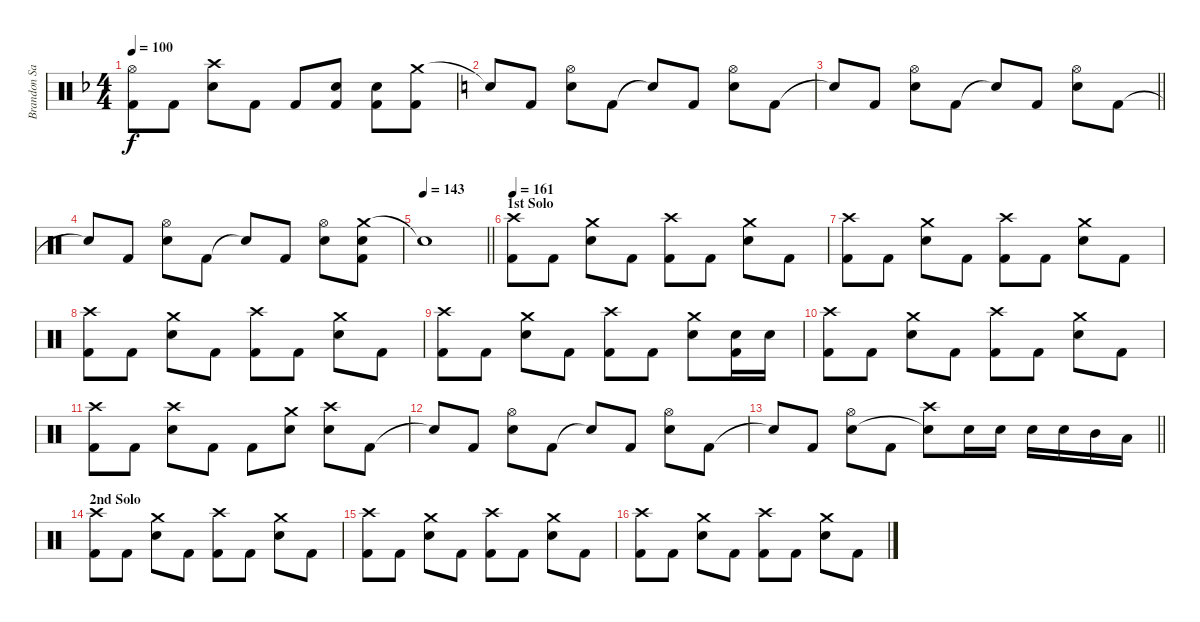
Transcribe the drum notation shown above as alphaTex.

\track ("Brandon Saller" "Brandon Sa") {instrument percussion}
\staff {score}
\articulation defaults
\ts (4 4)
\tempo 100
\clef neutral
\ks f
("Hi-Hat (open)" "Kick (hit) 2").8{dy f} "Kick (hit) 2".8 ("Crash high (hit)" "Electric Snare (hit)").8 "Kick (hit) 2".8 "Kick (hit) 2".8 ("Snare (hit) 2" "Kick (hit) 2").8 ("Snare (hit) 2" "Kick (hit) 2").8 ("Crash medium (hit)" "Kick (hit) 2").8 |
\ks c "Snare (hit)"{t}.8 "Kick (hit) 2".8
("Hi-Hat (open)" "Electric Snare (hit)").8 "Kick (hit) 2".8 "Snare (hit)"{t}.8 "Kick (hit) 2".8 ("Hi-Hat (open)" "Electric Snare (hit)").8 "Kick (hit) 2".8 |
\barLineRight lightlight "Snare (hit)"{t}.8 "Kick (hit) 2".8
("Hi-Hat (open)" "Electric Snare (hit)").8 "Kick (hit) 2".8 "Snare (hit)"{t}.8 "Kick (hit) 2".8 ("Hi-Hat (open)" "Electric Snare (hit)").8 "Kick (hit) 2".8 |
"Snare (hit)"{t}.8 "Kick (hit) 2".8 ("Hi-Hat (open)" "Electric Snare (hit)").8 "Kick (hit) 2".8 "Snare (hit)"{t}.8 "Kick (hit) 2".8 ("Hi-Hat (open)" "Electric Snare (hit)").8 ("Crash medium (hit)" "Snare (hit) 2" "Kick (hit) 2").8 |
\tempo 143
\barLineRight lightlight "Snare (hit)"{t}.1
|
\section ("" "1st Solo")
\tempo 161
("Crash high (hit)" "Kick (hit) 2").8 "Kick (hit) 2".8 ("Crash medium (hit)" "Electric Snare (hit)").8 "Kick (hit) 2".8 ("Crash high (hit)" "Kick (hit) 2").8 "Kick (hit) 2".8 ("Crash medium (hit)" "Electric Snare (hit)").8 "Kick (hit) 2".8 |
("Crash high (hit)" "Kick (hit) 2").8 "Kick (hit) 2".8 ("Crash medium (hit)" "Electric Snare (hit)").8 "Kick (hit) 2".8 ("Crash high (hit)" "Kick (hit) 2").8 "Kick (hit) 2".8 ("Crash medium (hit)" "Electric Snare (hit)").8 "Kick (hit) 2".8 |
("Crash high (hit)" "Kick (hit) 2").8 "Kick (hit) 2".8 ("Crash medium (hit)" "Electric Snare (hit)").8 "Kick (hit) 2".8 ("Crash high (hit)" "Kick (hit) 2").8 "Kick (hit) 2".8 ("Crash medium (hit)" "Electric Snare (hit)").8 "Kick (hit) 2".8 |
("Crash high (hit)" "Kick (hit) 2").8 "Kick (hit) 2".8 ("Crash medium (hit)" "Electric Snare (hit)").8 "Kick (hit) 2".8 ("Crash high (hit)" "Kick (hit) 2").8 "Kick (hit) 2".8 ("Crash medium (hit)" "Electric Snare (hit)").8 ("Electric Snare (hit)" "Kick (hit) 2").16 "Electric Snare (hit)".16 |
("Crash high (hit)" "Kick (hit) 2").8 "Kick (hit) 2".8 ("Crash medium (hit)" "Electric Snare (hit)").8 "Kick (hit) 2".8 ("Crash high (hit)" "Kick (hit) 2").8 "Kick (hit) 2".8 ("Crash medium (hit)" "Electric Snare (hit)").8 "Kick (hit) 2".8 |
("Crash high (hit)" "Kick (hit) 2").8 "Kick (hit) 2".8 ("Crash high (hit)" "Electric Snare (hit)").8 "Kick (hit) 2".8 "Kick (hit) 2".8 ("Crash medium (hit)" "Snare (hit) 2").8 ("Crash high (hit)" "Snare (hit) 2").8 "Kick (hit) 2".8 |
"Snare (hit)"{t}.8 "Kick (hit) 2".8 ("Hi-Hat (open)" "Electric Snare (hit)").8 "Kick (hit) 2".8 "Snare (hit)"{t}.8 "Kick (hit) 2".8 ("Hi-Hat (open)" "Electric Snare (hit)").8 "Kick (hit) 2".8 |
\barLineRight lightlight "Snare (hit)"{t}.8 "Kick (hit) 2".8
("Hi-Hat (open)" "Electric Snare (hit)").8 "Kick (hit) 2".8 ("Crash high (hit)" "Snare (hit)"{t}).8 "Electric Snare (hit)".16 "Electric Snare (hit)".16 "Snare (hit) 2".16 "Snare (hit) 2".16 "Mid Tom (hit)".16 "Low Tom (hit)".16 |
\section ("" "2nd Solo")
("Crash high (hit)" "Kick (hit) 2").8 "Kick (hit) 2".8 ("Crash medium (hit)" "Electric Snare (hit)").8 "Kick (hit) 2".8 ("Crash high (hit)" "Kick (hit) 2").8 "Kick (hit) 2".8 ("Crash medium (hit)" "Electric Snare (hit)").8 "Kick (hit) 2".8 |
("Crash high (hit)" "Kick (hit) 2").8 "Kick (hit) 2".8 ("Crash medium (hit)" "Electric Snare (hit)").8 "Kick (hit) 2".8 ("Crash high (hit)" "Kick (hit) 2").8 "Kick (hit) 2".8 ("Crash medium (hit)" "Electric Snare (hit)").8 "Kick (hit) 2".8 |
("Crash high (hit)" "Kick (hit) 2").8 "Kick (hit) 2".8 ("Crash medium (hit)" "Electric Snare (hit)").8 "Kick (hit) 2".8 ("Crash high (hit)" "Kick (hit) 2").8 "Kick (hit) 2".8 ("Crash medium (hit)" "Electric Snare (hit)").8 "Kick (hit) 2".8
